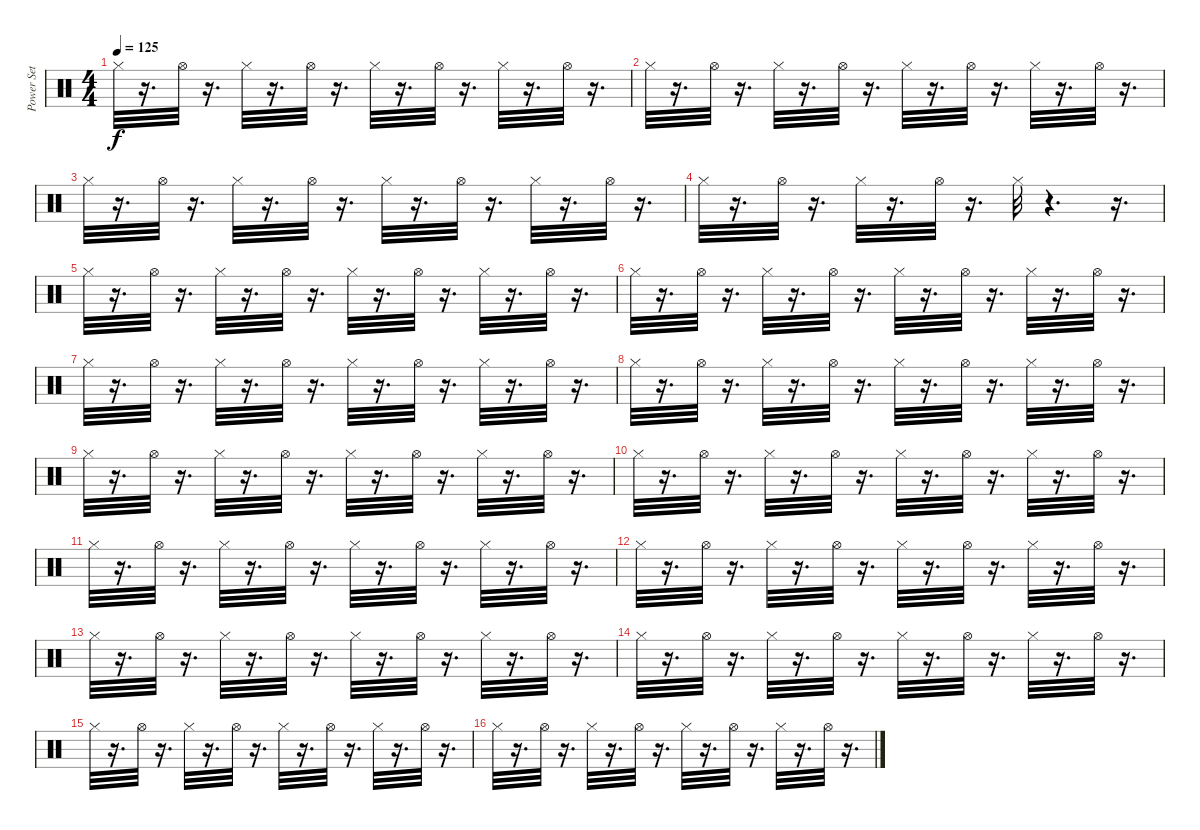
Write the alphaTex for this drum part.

\track ("Power Set" "Power Set") {instrument percussion}
\staff {score}
\articulation defaults
\ts (4 4)
\tempo 125
\clef neutral
\ks c "Hi-Hat (closed)".32{dy f}
r.16{d} "Hi-Hat (open)".32 r.16{d} "Hi-Hat (closed)".32 r.16{d} "Hi-Hat (open)".32 r.16{d} "Hi-Hat (closed)".32 r.16{d} "Hi-Hat (open)".32 r.16{d} "Hi-Hat (closed)".32 r.16{d} "Hi-Hat (open)".32 r.16{d} |
"Hi-Hat (closed)".32 r.16{d} "Hi-Hat (open)".32 r.16{d} "Hi-Hat (closed)".32 r.16{d} "Hi-Hat (open)".32 r.16{d} "Hi-Hat (closed)".32 r.16{d} "Hi-Hat (open)".32 r.16{d} "Hi-Hat (closed)".32 r.16{d} "Hi-Hat (open)".32 r.16{d} |
"Hi-Hat (closed)".32 r.16{d} "Hi-Hat (open)".32 r.16{d} "Hi-Hat (closed)".32 r.16{d} "Hi-Hat (open)".32 r.16{d} "Hi-Hat (closed)".32 r.16{d} "Hi-Hat (open)".32 r.16{d} "Hi-Hat (closed)".32 r.16{d} "Hi-Hat (open)".32 r.16{d} |
"Hi-Hat (closed)".32 r.16{d} "Hi-Hat (open)".32 r.16{d} "Hi-Hat (closed)".32 r.16{d} "Hi-Hat (open)".32 r.16{d} "Hi-Hat (closed)".32 r.4{d} r.16{d} |
"Hi-Hat (closed)".32 r.16{d} "Hi-Hat (open)".32 r.16{d} "Hi-Hat (closed)".32 r.16{d} "Hi-Hat (open)".32 r.16{d} "Hi-Hat (closed)".32 r.16{d} "Hi-Hat (open)".32 r.16{d} "Hi-Hat (closed)".32 r.16{d} "Hi-Hat (open)".32 r.16{d} |
"Hi-Hat (closed)".32 r.16{d} "Hi-Hat (open)".32 r.16{d} "Hi-Hat (closed)".32 r.16{d} "Hi-Hat (open)".32 r.16{d} "Hi-Hat (closed)".32 r.16{d} "Hi-Hat (open)".32 r.16{d} "Hi-Hat (closed)".32 r.16{d} "Hi-Hat (open)".32 r.16{d} |
"Hi-Hat (closed)".32 r.16{d} "Hi-Hat (open)".32 r.16{d} "Hi-Hat (closed)".32 r.16{d} "Hi-Hat (open)".32 r.16{d} "Hi-Hat (closed)".32 r.16{d} "Hi-Hat (open)".32 r.16{d} "Hi-Hat (closed)".32 r.16{d} "Hi-Hat (open)".32 r.16{d} |
"Hi-Hat (closed)".32 r.16{d} "Hi-Hat (open)".32 r.16{d} "Hi-Hat (closed)".32 r.16{d} "Hi-Hat (open)".32 r.16{d} "Hi-Hat (closed)".32 r.16{d} "Hi-Hat (open)".32 r.16{d} "Hi-Hat (closed)".32 r.16{d} "Hi-Hat (open)".32 r.16{d} |
"Hi-Hat (closed)".32 r.16{d} "Hi-Hat (open)".32 r.16{d} "Hi-Hat (closed)".32 r.16{d} "Hi-Hat (open)".32 r.16{d} "Hi-Hat (closed)".32 r.16{d} "Hi-Hat (open)".32 r.16{d} "Hi-Hat (closed)".32 r.16{d} "Hi-Hat (open)".32 r.16{d} |
"Hi-Hat (closed)".32 r.16{d} "Hi-Hat (open)".32 r.16{d} "Hi-Hat (closed)".32 r.16{d} "Hi-Hat (open)".32 r.16{d} "Hi-Hat (closed)".32 r.16{d} "Hi-Hat (open)".32 r.16{d} "Hi-Hat (closed)".32 r.16{d} "Hi-Hat (open)".32 r.16{d} |
"Hi-Hat (closed)".32 r.16{d} "Hi-Hat (open)".32 r.16{d} "Hi-Hat (closed)".32 r.16{d} "Hi-Hat (open)".32 r.16{d} "Hi-Hat (closed)".32 r.16{d} "Hi-Hat (open)".32 r.16{d} "Hi-Hat (closed)".32 r.16{d} "Hi-Hat (open)".32 r.16{d} |
"Hi-Hat (closed)".32 r.16{d} "Hi-Hat (open)".32 r.16{d} "Hi-Hat (closed)".32 r.16{d} "Hi-Hat (open)".32 r.16{d} "Hi-Hat (closed)".32 r.16{d} "Hi-Hat (open)".32 r.16{d} "Hi-Hat (closed)".32 r.16{d} "Hi-Hat (open)".32 r.16{d} |
"Hi-Hat (closed)".32 r.16{d} "Hi-Hat (open)".32 r.16{d} "Hi-Hat (closed)".32 r.16{d} "Hi-Hat (open)".32 r.16{d} "Hi-Hat (closed)".32 r.16{d} "Hi-Hat (open)".32 r.16{d} "Hi-Hat (closed)".32 r.16{d} "Hi-Hat (open)".32 r.16{d} |
"Hi-Hat (closed)".32 r.16{d} "Hi-Hat (open)".32 r.16{d} "Hi-Hat (closed)".32 r.16{d} "Hi-Hat (open)".32 r.16{d} "Hi-Hat (closed)".32 r.16{d} "Hi-Hat (open)".32 r.16{d} "Hi-Hat (closed)".32 r.16{d} "Hi-Hat (open)".32 r.16{d} |
"Hi-Hat (closed)".32 r.16{d} "Hi-Hat (open)".32 r.16{d} "Hi-Hat (closed)".32 r.16{d} "Hi-Hat (open)".32 r.16{d} "Hi-Hat (closed)".32 r.16{d} "Hi-Hat (open)".32 r.16{d} "Hi-Hat (closed)".32 r.16{d} "Hi-Hat (open)".32 r.16{d} |
"Hi-Hat (closed)".32 r.16{d} "Hi-Hat (open)".32 r.16{d} "Hi-Hat (closed)".32 r.16{d} "Hi-Hat (open)".32 r.16{d} "Hi-Hat (closed)".32 r.16{d} "Hi-Hat (open)".32 r.16{d} "Hi-Hat (closed)".32 r.16{d} "Hi-Hat (open)".32 r.16{d}
